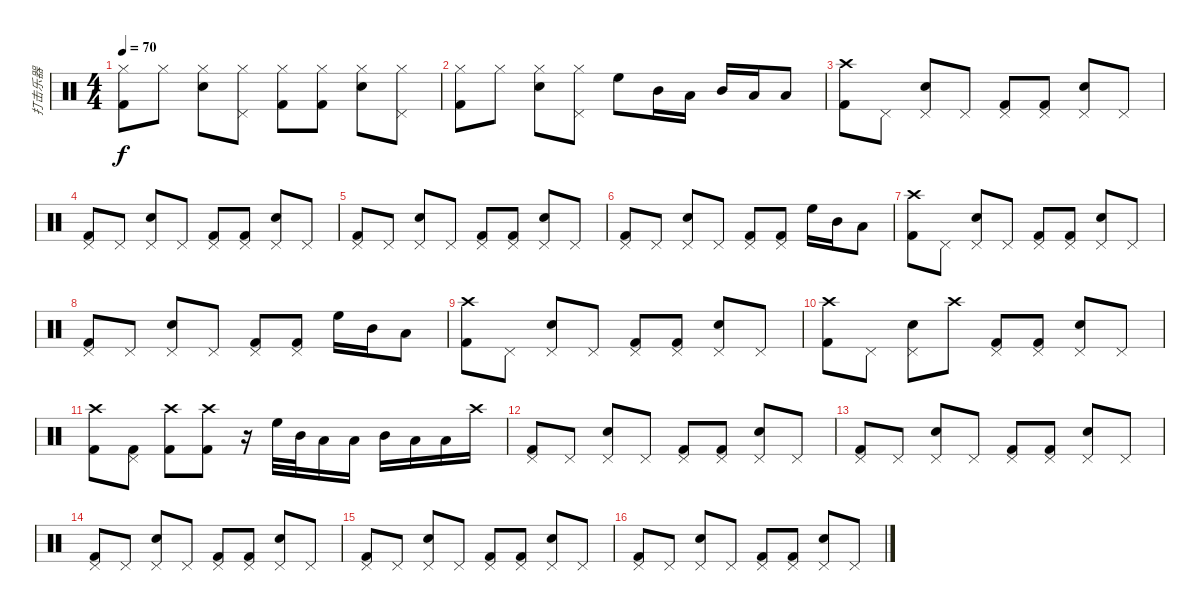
\track ("打击乐器" "打击乐器") {instrument percussion}
\staff {score}
\articulation defaults
\ts (4 4)
\tempo 70
\clef neutral
\ks c
("Hi-Hat (closed)" "Kick (hit) 2").8{dy f} "Hi-Hat (closed)".8 ("Hi-Hat (closed)" "Snare (hit) 2").8 ("Hi-Hat (closed)" "Pedal Hi-Hat (hit)").8 ("Hi-Hat (closed)" "Kick (hit) 2").8 ("Hi-Hat (closed)" "Kick (hit) 2").8 ("Hi-Hat (closed)" "Snare (hit) 2").8 ("Hi-Hat (closed)" "Pedal Hi-Hat (hit)").8 |
("Hi-Hat (closed)" "Kick (hit) 2").8 "Hi-Hat (closed)".8 ("Hi-Hat (closed)" "Snare (hit) 2").8 ("Hi-Hat (closed)" "Pedal Hi-Hat (hit)").8 "High Floor Tom (hit)".8 "Mid Tom (hit)".16 "Low Tom (hit)".16 "Mid Tom (hit)".16 "Low Tom (hit)".16 "Low Floor Tom (hit)".8 |
("Crash high (hit)" "Kick (hit) 2").8 "Pedal Hi-Hat (hit)".8 ("Pedal Hi-Hat (hit)" "Snare (hit) 2").8 "Pedal Hi-Hat (hit)".8 ("Pedal Hi-Hat (hit)" "Kick (hit) 2").8 ("Pedal Hi-Hat (hit)" "Kick (hit) 2").8 ("Pedal Hi-Hat (hit)" "Snare (hit) 2").8 "Pedal Hi-Hat (hit)".8 |
("Pedal Hi-Hat (hit)" "Kick (hit) 2").8 "Pedal Hi-Hat (hit)".8 ("Pedal Hi-Hat (hit)" "Snare (hit) 2").8 "Pedal Hi-Hat (hit)".8 ("Pedal Hi-Hat (hit)" "Kick (hit) 2").8 ("Pedal Hi-Hat (hit)" "Kick (hit) 2").8 ("Pedal Hi-Hat (hit)" "Snare (hit) 2").8 "Pedal Hi-Hat (hit)".8 |
("Pedal Hi-Hat (hit)" "Kick (hit) 2").8 "Pedal Hi-Hat (hit)".8 ("Pedal Hi-Hat (hit)" "Snare (hit) 2").8 "Pedal Hi-Hat (hit)".8 ("Pedal Hi-Hat (hit)" "Kick (hit) 2").8 ("Pedal Hi-Hat (hit)" "Kick (hit) 2").8 ("Pedal Hi-Hat (hit)" "Snare (hit) 2").8 "Pedal Hi-Hat (hit)".8 |
("Pedal Hi-Hat (hit)" "Kick (hit) 2").8 "Pedal Hi-Hat (hit)".8 ("Pedal Hi-Hat (hit)" "Snare (hit) 2").8 "Pedal Hi-Hat (hit)".8 ("Pedal Hi-Hat (hit)" "Kick (hit) 2").8 ("Pedal Hi-Hat (hit)" "Kick (hit) 2").8 "High Floor Tom (hit)".16 "Mid Tom (hit)".16 "Low Tom (hit)".8 |
("Crash high (hit)" "Kick (hit) 2").8 "Pedal Hi-Hat (hit)".8 ("Pedal Hi-Hat (hit)" "Snare (hit) 2").8 "Pedal Hi-Hat (hit)".8 ("Pedal Hi-Hat (hit)" "Kick (hit) 2").8 ("Pedal Hi-Hat (hit)" "Kick (hit) 2").8 ("Pedal Hi-Hat (hit)" "Snare (hit) 2").8 "Pedal Hi-Hat (hit)".8 |
("Pedal Hi-Hat (hit)" "Kick (hit) 2").8 "Pedal Hi-Hat (hit)".8 ("Pedal Hi-Hat (hit)" "Snare (hit) 2").8 "Pedal Hi-Hat (hit)".8 ("Pedal Hi-Hat (hit)" "Kick (hit) 2").8 ("Pedal Hi-Hat (hit)" "Kick (hit) 2").8 "High Floor Tom (hit)".16 "Mid Tom (hit)".16 "Low Tom (hit)".8 |
("Crash high (hit)" "Kick (hit) 2").8 "Pedal Hi-Hat (hit)".8 ("Pedal Hi-Hat (hit)" "Snare (hit) 2").8 "Pedal Hi-Hat (hit)".8 ("Pedal Hi-Hat (hit)" "Kick (hit) 2").8 ("Pedal Hi-Hat (hit)" "Kick (hit) 2").8 ("Pedal Hi-Hat (hit)" "Snare (hit) 2").8 "Pedal Hi-Hat (hit)".8 |
("Crash high (hit)" "Kick (hit) 2").8 "Pedal Hi-Hat (hit)".8 ("Pedal Hi-Hat (hit)" "Snare (hit) 2").8 "Crash high (hit)".8 ("Pedal Hi-Hat (hit)" "Kick (hit) 2").8 ("Pedal Hi-Hat (hit)" "Kick (hit) 2").8 ("Pedal Hi-Hat (hit)" "Snare (hit) 2").8 "Pedal Hi-Hat (hit)".8 |
("Crash high (hit)" "Kick (hit) 2").8 ("Pedal Hi-Hat (hit)" "Kick (hit) 2").8 ("Crash high (hit)" "Kick (hit) 2").8 ("Crash high (hit)" "Kick (hit) 2").8 r.16 "High Floor Tom (hit)".32 "Mid Tom (hit)".32 "Low Tom (hit)".16 "Low Tom (hit)".16 "Mid Tom (hit)".16 "Low Tom (hit)".16 "Low Floor Tom (hit)".16 "Crash high (hit)".16 |
("Pedal Hi-Hat (hit)" "Kick (hit) 2").8 "Pedal Hi-Hat (hit)".8 ("Pedal Hi-Hat (hit)" "Snare (hit) 2").8 "Pedal Hi-Hat (hit)".8 ("Pedal Hi-Hat (hit)" "Kick (hit) 2").8 ("Pedal Hi-Hat (hit)" "Kick (hit) 2").8 ("Pedal Hi-Hat (hit)" "Snare (hit) 2").8 "Pedal Hi-Hat (hit)".8 |
("Pedal Hi-Hat (hit)" "Kick (hit) 2").8 "Pedal Hi-Hat (hit)".8 ("Pedal Hi-Hat (hit)" "Snare (hit) 2").8 "Pedal Hi-Hat (hit)".8 ("Pedal Hi-Hat (hit)" "Kick (hit) 2").8 ("Pedal Hi-Hat (hit)" "Kick (hit) 2").8 ("Pedal Hi-Hat (hit)" "Snare (hit) 2").8 "Pedal Hi-Hat (hit)".8 |
("Pedal Hi-Hat (hit)" "Kick (hit) 2").8 "Pedal Hi-Hat (hit)".8 ("Pedal Hi-Hat (hit)" "Snare (hit) 2").8 "Pedal Hi-Hat (hit)".8 ("Pedal Hi-Hat (hit)" "Kick (hit) 2").8 ("Pedal Hi-Hat (hit)" "Kick (hit) 2").8 ("Pedal Hi-Hat (hit)" "Snare (hit) 2").8 "Pedal Hi-Hat (hit)".8 |
("Pedal Hi-Hat (hit)" "Kick (hit) 2").8 "Pedal Hi-Hat (hit)".8 ("Pedal Hi-Hat (hit)" "Snare (hit) 2").8 "Pedal Hi-Hat (hit)".8 ("Pedal Hi-Hat (hit)" "Kick (hit) 2").8 ("Pedal Hi-Hat (hit)" "Kick (hit) 2").8 ("Pedal Hi-Hat (hit)" "Snare (hit) 2").8 "Pedal Hi-Hat (hit)".8 |
("Pedal Hi-Hat (hit)" "Kick (hit) 2").8 "Pedal Hi-Hat (hit)".8 ("Pedal Hi-Hat (hit)" "Snare (hit) 2").8 "Pedal Hi-Hat (hit)".8 ("Pedal Hi-Hat (hit)" "Kick (hit) 2").8 ("Pedal Hi-Hat (hit)" "Kick (hit) 2").8 ("Pedal Hi-Hat (hit)" "Snare (hit) 2").8 "Pedal Hi-Hat (hit)".8
